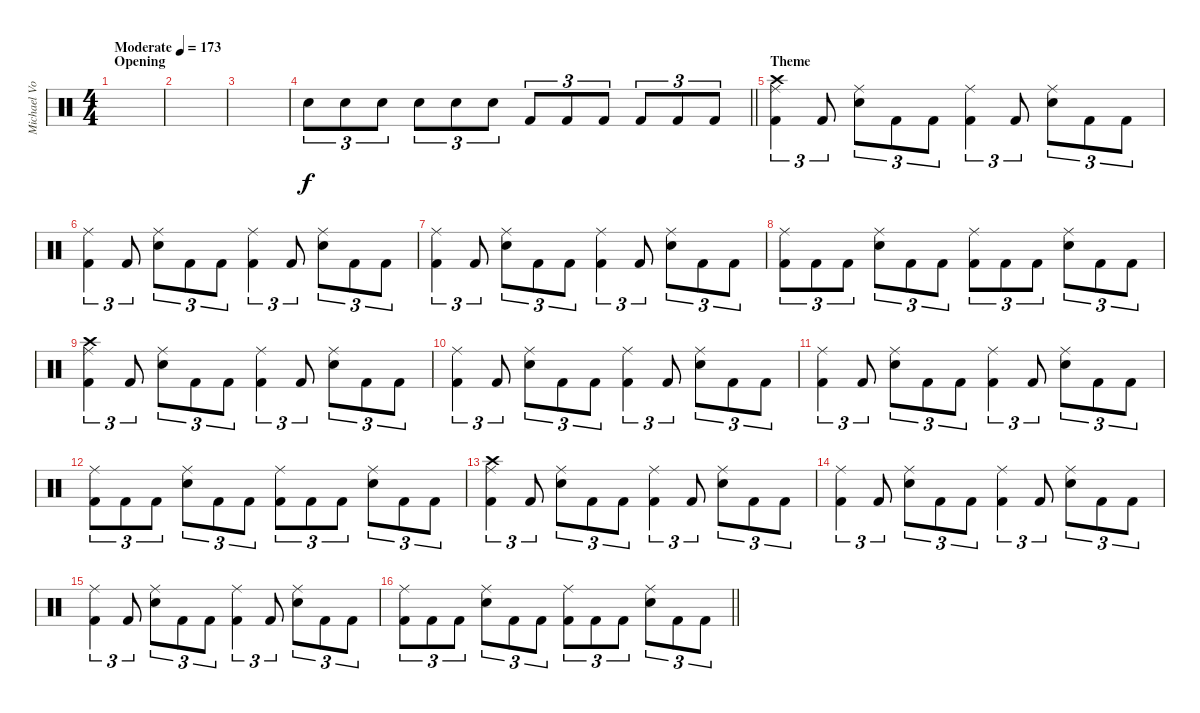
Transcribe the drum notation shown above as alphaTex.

\track ("Michael Von Knorring " "Michael Vo") {instrument percussion}
\staff {score}
\articulation defaults
\ts (4 4)
\section ("" "Opening")
\tempo (173 "Moderate")
\clef neutral
\ks c
|
|
|
\barLineRight lightlight "Snare (hit) 2".8{tu (3 2)} "Snare (hit) 2".8{tu (3 2)} "Snare (hit) 2".8{tu (3 2)} "Snare (hit) 2".8{tu (3 2)} "Snare (hit) 2".8{tu (3 2)} "Snare (hit) 2".8{tu (3 2)} "Kick (hit) 2".8{tu (3 2)} "Kick (hit) 2".8{tu (3 2)} "Kick (hit) 2".8{tu (3 2)} "Kick (hit) 2".8{tu (3 2)} "Kick (hit) 2".8{tu (3 2)} "Kick (hit) 2".8{tu (3 2)}
|
\section ("" "Theme")
("Crash high (hit)" "Ride (middle)" "Kick (hit) 2").4{tu (3 2)} "Kick (hit) 2".8{tu (3 2)} ("Ride (middle)" "Snare (hit) 2").8{tu (3 2)} "Kick (hit) 2".8{tu (3 2)} "Kick (hit) 2".8{tu (3 2)} ("Ride (middle)" "Kick (hit) 2").4{tu (3 2)} "Kick (hit) 2".8{tu (3 2)} ("Ride (middle)" "Snare (hit) 2").8{tu (3 2)} "Kick (hit) 2".8{tu (3 2)} "Kick (hit) 2".8{tu (3 2)} |
("Ride (middle)" "Kick (hit) 2").4{tu (3 2)} "Kick (hit) 2".8{tu (3 2)} ("Ride (middle)" "Snare (hit) 2").8{tu (3 2)} "Kick (hit) 2".8{tu (3 2)} "Kick (hit) 2".8{tu (3 2)} ("Ride (middle)" "Kick (hit) 2").4{tu (3 2)} "Kick (hit) 2".8{tu (3 2)} ("Ride (middle)" "Snare (hit) 2").8{tu (3 2)} "Kick (hit) 2".8{tu (3 2)} "Kick (hit) 2".8{tu (3 2)} |
("Ride (middle)" "Kick (hit) 2").4{tu (3 2)} "Kick (hit) 2".8{tu (3 2)} ("Ride (middle)" "Snare (hit) 2").8{tu (3 2)} "Kick (hit) 2".8{tu (3 2)} "Kick (hit) 2".8{tu (3 2)} ("Ride (middle)" "Kick (hit) 2").4{tu (3 2)} "Kick (hit) 2".8{tu (3 2)} ("Ride (middle)" "Snare (hit) 2").8{tu (3 2)} "Kick (hit) 2".8{tu (3 2)} "Kick (hit) 2".8{tu (3 2)} |
("Ride (middle)" "Kick (hit) 2").8{tu (3 2)} "Kick (hit) 2".8{tu (3 2)} "Kick (hit) 2".8{tu (3 2)} ("Ride (middle)" "Snare (hit) 2").8{tu (3 2)} "Kick (hit) 2".8{tu (3 2)} "Kick (hit) 2".8{tu (3 2)} ("Ride (middle)" "Kick (hit) 2").8{tu (3 2)} "Kick (hit) 2".8{tu (3 2)} "Kick (hit) 2".8{tu (3 2)} ("Ride (middle)" "Snare (hit) 2").8{tu (3 2)} "Kick (hit) 2".8{tu (3 2)} "Kick (hit) 2".8{tu (3 2)} |
("Crash high (hit)" "Ride (middle)" "Kick (hit) 2").4{tu (3 2)} "Kick (hit) 2".8{tu (3 2)} ("Ride (middle)" "Snare (hit) 2").8{tu (3 2)} "Kick (hit) 2".8{tu (3 2)} "Kick (hit) 2".8{tu (3 2)} ("Ride (middle)" "Kick (hit) 2").4{tu (3 2)} "Kick (hit) 2".8{tu (3 2)} ("Ride (middle)" "Snare (hit) 2").8{tu (3 2)} "Kick (hit) 2".8{tu (3 2)} "Kick (hit) 2".8{tu (3 2)} |
("Ride (middle)" "Kick (hit) 2").4{tu (3 2)} "Kick (hit) 2".8{tu (3 2)} ("Ride (middle)" "Snare (hit) 2").8{tu (3 2)} "Kick (hit) 2".8{tu (3 2)} "Kick (hit) 2".8{tu (3 2)} ("Ride (middle)" "Kick (hit) 2").4{tu (3 2)} "Kick (hit) 2".8{tu (3 2)} ("Ride (middle)" "Snare (hit) 2").8{tu (3 2)} "Kick (hit) 2".8{tu (3 2)} "Kick (hit) 2".8{tu (3 2)} |
("Ride (middle)" "Kick (hit) 2").4{tu (3 2)} "Kick (hit) 2".8{tu (3 2)} ("Ride (middle)" "Snare (hit) 2").8{tu (3 2)} "Kick (hit) 2".8{tu (3 2)} "Kick (hit) 2".8{tu (3 2)} ("Ride (middle)" "Kick (hit) 2").4{tu (3 2)} "Kick (hit) 2".8{tu (3 2)} ("Ride (middle)" "Snare (hit) 2").8{tu (3 2)} "Kick (hit) 2".8{tu (3 2)} "Kick (hit) 2".8{tu (3 2)} |
("Ride (middle)" "Kick (hit) 2").8{tu (3 2)} "Kick (hit) 2".8{tu (3 2)} "Kick (hit) 2".8{tu (3 2)} ("Ride (middle)" "Snare (hit) 2").8{tu (3 2)} "Kick (hit) 2".8{tu (3 2)} "Kick (hit) 2".8{tu (3 2)} ("Ride (middle)" "Kick (hit) 2").8{tu (3 2)} "Kick (hit) 2".8{tu (3 2)} "Kick (hit) 2".8{tu (3 2)} ("Ride (middle)" "Snare (hit) 2").8{tu (3 2)} "Kick (hit) 2".8{tu (3 2)} "Kick (hit) 2".8{tu (3 2)} |
("Crash high (hit)" "Ride (middle)" "Kick (hit) 2").4{tu (3 2)} "Kick (hit) 2".8{tu (3 2)} ("Ride (middle)" "Snare (hit) 2").8{tu (3 2)} "Kick (hit) 2".8{tu (3 2)} "Kick (hit) 2".8{tu (3 2)} ("Ride (middle)" "Kick (hit) 2").4{tu (3 2)} "Kick (hit) 2".8{tu (3 2)} ("Ride (middle)" "Snare (hit) 2").8{tu (3 2)} "Kick (hit) 2".8{tu (3 2)} "Kick (hit) 2".8{tu (3 2)} |
("Ride (middle)" "Kick (hit) 2").4{tu (3 2)} "Kick (hit) 2".8{tu (3 2)} ("Ride (middle)" "Snare (hit) 2").8{tu (3 2)} "Kick (hit) 2".8{tu (3 2)} "Kick (hit) 2".8{tu (3 2)} ("Ride (middle)" "Kick (hit) 2").4{tu (3 2)} "Kick (hit) 2".8{tu (3 2)} ("Ride (middle)" "Snare (hit) 2").8{tu (3 2)} "Kick (hit) 2".8{tu (3 2)} "Kick (hit) 2".8{tu (3 2)} |
("Ride (middle)" "Kick (hit) 2").4{tu (3 2)} "Kick (hit) 2".8{tu (3 2)} ("Ride (middle)" "Snare (hit) 2").8{tu (3 2)} "Kick (hit) 2".8{tu (3 2)} "Kick (hit) 2".8{tu (3 2)} ("Ride (middle)" "Kick (hit) 2").4{tu (3 2)} "Kick (hit) 2".8{tu (3 2)} ("Ride (middle)" "Snare (hit) 2").8{tu (3 2)} "Kick (hit) 2".8{tu (3 2)} "Kick (hit) 2".8{tu (3 2)} |
\barLineRight lightlight
("Ride (middle)" "Kick (hit) 2").8{tu (3 2)} "Kick (hit) 2".8{tu (3 2)} "Kick (hit) 2".8{tu (3 2)} ("Ride (middle)" "Snare (hit) 2").8{tu (3 2)} "Kick (hit) 2".8{tu (3 2)} "Kick (hit) 2".8{tu (3 2)} ("Ride (middle)" "Kick (hit) 2").8{tu (3 2)} "Kick (hit) 2".8{tu (3 2)} "Kick (hit) 2".8{tu (3 2)} ("Ride (middle)" "Snare (hit) 2").8{tu (3 2)} "Kick (hit) 2".8{tu (3 2)} "Kick (hit) 2".8{tu (3 2)}
